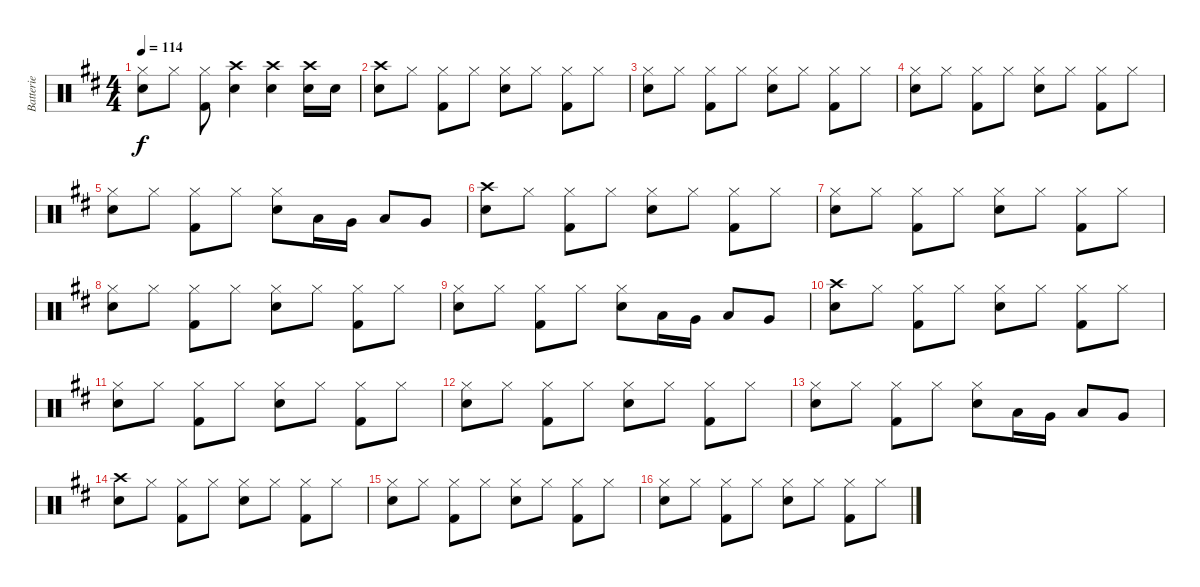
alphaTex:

\track ("Batterie" "Batterie") {instrument percussion}
\staff {score}
\articulation defaults
\ts (4 4)
\tempo 114
\clef neutral
\ks d
("Hi-Hat (closed)" "Snare (hit) 2").8{dy f} "Hi-Hat (closed)".8 ("Hi-Hat (closed)" "Kick (hit) 2").8 ("Crash high (hit)" "Snare (hit) 2").4 ("Crash high (hit)" "Snare (hit) 2").4 ("Crash high (hit)" "Snare (hit) 2").16 "Snare (hit) 2".16 |
("Crash high (hit)" "Snare (hit) 2").8 "Hi-Hat (closed)".8 ("Hi-Hat (closed)" "Kick (hit) 2").8 "Hi-Hat (closed)".8 ("Hi-Hat (closed)" "Snare (hit) 2").8 "Hi-Hat (closed)".8 ("Hi-Hat (closed)" "Kick (hit) 2").8 "Hi-Hat (closed)".8 |
("Hi-Hat (closed)" "Snare (hit) 2").8 "Hi-Hat (closed)".8 ("Hi-Hat (closed)" "Kick (hit) 2").8 "Hi-Hat (closed)".8 ("Hi-Hat (closed)" "Snare (hit) 2").8 "Hi-Hat (closed)".8 ("Hi-Hat (closed)" "Kick (hit) 2").8 "Hi-Hat (closed)".8 |
("Hi-Hat (closed)" "Snare (hit) 2").8 "Hi-Hat (closed)".8 ("Hi-Hat (closed)" "Kick (hit) 2").8 "Hi-Hat (closed)".8 ("Hi-Hat (closed)" "Snare (hit) 2").8 "Hi-Hat (closed)".8 ("Hi-Hat (closed)" "Kick (hit) 2").8 "Hi-Hat (closed)".8 |
("Hi-Hat (closed)" "Snare (hit) 2").8 "Hi-Hat (closed)".8 ("Hi-Hat (closed)" "Kick (hit) 2").8 "Hi-Hat (closed)".8 ("Hi-Hat (closed)" "Snare (hit) 2").8 "Low Tom (hit)".16 "Very Low Tom (hit)".16 "Low Floor Tom (hit)".8 "Very Low Tom (hit)".8 |
("Crash high (hit)" "Snare (hit) 2").8 "Hi-Hat (closed)".8 ("Hi-Hat (closed)" "Kick (hit) 2").8 "Hi-Hat (closed)".8 ("Hi-Hat (closed)" "Snare (hit) 2").8 "Hi-Hat (closed)".8 ("Hi-Hat (closed)" "Kick (hit) 2").8 "Hi-Hat (closed)".8 |
("Hi-Hat (closed)" "Snare (hit) 2").8 "Hi-Hat (closed)".8 ("Hi-Hat (closed)" "Kick (hit) 2").8 "Hi-Hat (closed)".8 ("Hi-Hat (closed)" "Snare (hit) 2").8 "Hi-Hat (closed)".8 ("Hi-Hat (closed)" "Kick (hit) 2").8 "Hi-Hat (closed)".8 |
("Hi-Hat (closed)" "Snare (hit) 2").8 "Hi-Hat (closed)".8 ("Hi-Hat (closed)" "Kick (hit) 2").8 "Hi-Hat (closed)".8 ("Hi-Hat (closed)" "Snare (hit) 2").8 "Hi-Hat (closed)".8 ("Hi-Hat (closed)" "Kick (hit) 2").8 "Hi-Hat (closed)".8 |
("Hi-Hat (closed)" "Snare (hit) 2").8 "Hi-Hat (closed)".8 ("Hi-Hat (closed)" "Kick (hit) 2").8 "Hi-Hat (closed)".8 ("Hi-Hat (closed)" "Snare (hit) 2").8 "Low Tom (hit)".16 "Very Low Tom (hit)".16 "Low Floor Tom (hit)".8 "Very Low Tom (hit)".8 |
("Crash high (hit)" "Snare (hit) 2").8 "Hi-Hat (closed)".8 ("Hi-Hat (closed)" "Kick (hit) 2").8 "Hi-Hat (closed)".8 ("Hi-Hat (closed)" "Snare (hit) 2").8 "Hi-Hat (closed)".8 ("Hi-Hat (closed)" "Kick (hit) 2").8 "Hi-Hat (closed)".8 |
("Hi-Hat (closed)" "Snare (hit) 2").8 "Hi-Hat (closed)".8 ("Hi-Hat (closed)" "Kick (hit) 2").8 "Hi-Hat (closed)".8 ("Hi-Hat (closed)" "Snare (hit) 2").8 "Hi-Hat (closed)".8 ("Hi-Hat (closed)" "Kick (hit) 2").8 "Hi-Hat (closed)".8 |
("Hi-Hat (closed)" "Snare (hit) 2").8 "Hi-Hat (closed)".8 ("Hi-Hat (closed)" "Kick (hit) 2").8 "Hi-Hat (closed)".8 ("Hi-Hat (closed)" "Snare (hit) 2").8 "Hi-Hat (closed)".8 ("Hi-Hat (closed)" "Kick (hit) 2").8 "Hi-Hat (closed)".8 |
("Hi-Hat (closed)" "Snare (hit) 2").8 "Hi-Hat (closed)".8 ("Hi-Hat (closed)" "Kick (hit) 2").8 "Hi-Hat (closed)".8 ("Hi-Hat (closed)" "Snare (hit) 2").8 "Low Tom (hit)".16 "Very Low Tom (hit)".16 "Low Floor Tom (hit)".8 "Very Low Tom (hit)".8 |
("Crash high (hit)" "Snare (hit) 2").8 "Hi-Hat (closed)".8 ("Hi-Hat (closed)" "Kick (hit) 2").8 "Hi-Hat (closed)".8 ("Hi-Hat (closed)" "Snare (hit) 2").8 "Hi-Hat (closed)".8 ("Hi-Hat (closed)" "Kick (hit) 2").8 "Hi-Hat (closed)".8 |
("Hi-Hat (closed)" "Snare (hit) 2").8 "Hi-Hat (closed)".8 ("Hi-Hat (closed)" "Kick (hit) 2").8 "Hi-Hat (closed)".8 ("Hi-Hat (closed)" "Snare (hit) 2").8 "Hi-Hat (closed)".8 ("Hi-Hat (closed)" "Kick (hit) 2").8 "Hi-Hat (closed)".8 |
("Hi-Hat (closed)" "Snare (hit) 2").8 "Hi-Hat (closed)".8 ("Hi-Hat (closed)" "Kick (hit) 2").8 "Hi-Hat (closed)".8 ("Hi-Hat (closed)" "Snare (hit) 2").8 "Hi-Hat (closed)".8 ("Hi-Hat (closed)" "Kick (hit) 2").8 "Hi-Hat (closed)".8
